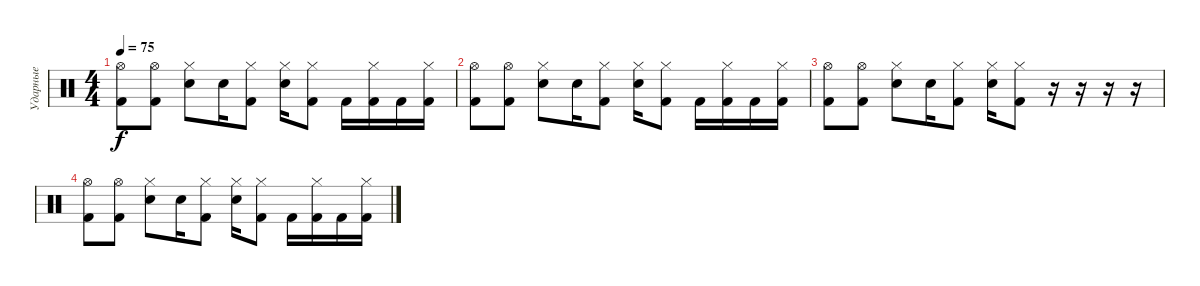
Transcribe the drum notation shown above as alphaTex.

\track ("Ударные" "Ударные") {instrument percussion}
\staff {score}
\articulation defaults
\ts (4 4)
\tempo 75
\clef neutral
\ks c
("Hi-Hat (open)" "Kick (hit) 2").8{dy f} ("Hi-Hat (open)" "Kick (hit) 2").8 ("Hi-Hat (closed)" "Electric Snare (hit)").8 "Electric Snare (hit)".16 ("Hi-Hat (closed)" "Kick (hit) 2").8 ("Hi-Hat (closed)" "Electric Snare (hit)").16 ("Hi-Hat (closed)" "Kick (hit) 2").8 "Kick (hit) 2".16 ("Hi-Hat (closed)" "Kick (hit) 2").16 "Kick (hit) 2".16 ("Hi-Hat (closed)" "Kick (hit) 2").16 |
("Hi-Hat (open)" "Kick (hit) 2").8 ("Hi-Hat (open)" "Kick (hit) 2").8 ("Hi-Hat (closed)" "Electric Snare (hit)").8 "Electric Snare (hit)".16 ("Hi-Hat (closed)" "Kick (hit) 2").8 ("Hi-Hat (closed)" "Electric Snare (hit)").16 ("Hi-Hat (closed)" "Kick (hit) 2").8 "Kick (hit) 2".16 ("Hi-Hat (closed)" "Kick (hit) 2").16 "Kick (hit) 2".16 ("Hi-Hat (closed)" "Kick (hit) 2").16 |
("Hi-Hat (open)" "Kick (hit) 2").8 ("Hi-Hat (open)" "Kick (hit) 2").8 ("Hi-Hat (closed)" "Electric Snare (hit)").8 "Electric Snare (hit)".16 ("Hi-Hat (closed)" "Kick (hit) 2").8 ("Hi-Hat (closed)" "Electric Snare (hit)").16 ("Hi-Hat (closed)" "Kick (hit) 2").8 r.16 r.16 r.16 r.16 |
("Hi-Hat (open)" "Kick (hit) 2").8 ("Hi-Hat (open)" "Kick (hit) 2").8 ("Hi-Hat (closed)" "Electric Snare (hit)").8 "Electric Snare (hit)".16 ("Hi-Hat (closed)" "Kick (hit) 2").8 ("Hi-Hat (closed)" "Electric Snare (hit)").16 ("Hi-Hat (closed)" "Kick (hit) 2").8 "Kick (hit) 2".16 ("Hi-Hat (closed)" "Kick (hit) 2").16 "Kick (hit) 2".16 ("Hi-Hat (closed)" "Kick (hit) 2").16
